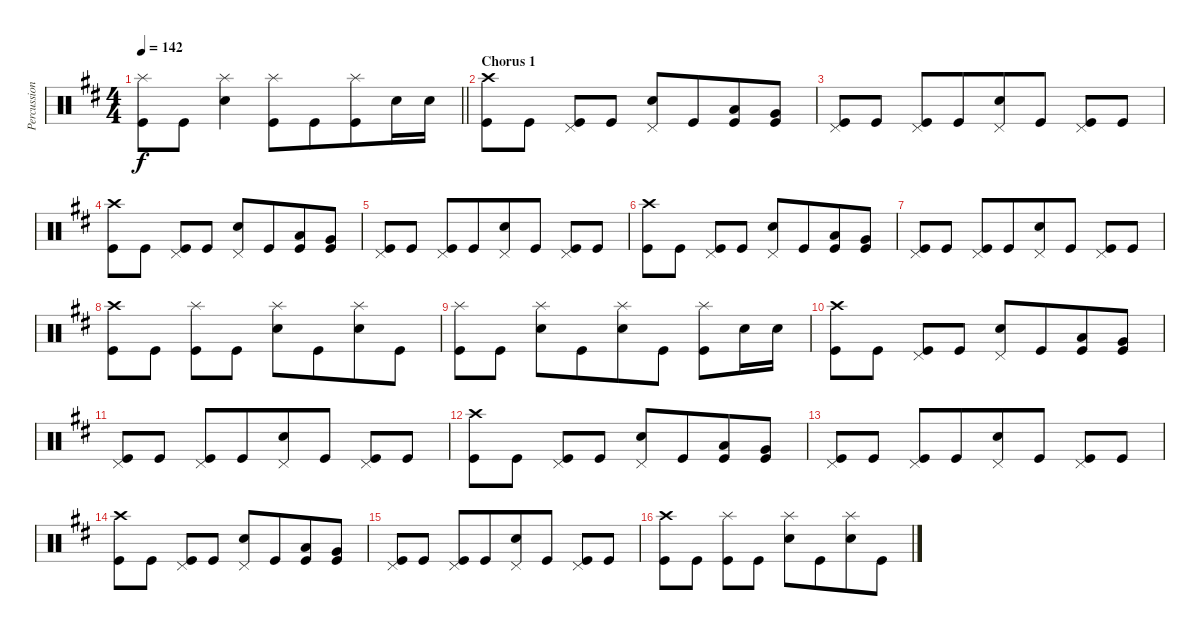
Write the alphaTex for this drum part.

\track ("Percussion" "Percussion") {instrument percussion}
\staff {score}
\articulation defaults
\ts (4 4)
\tempo 142
\clef neutral
\barLineRight lightlight
\ks d
("Kick (hit)" "Splash (hit)").8{dy f} "Kick (hit)".8 ("Snare (hit) 2" "Splash (hit)").4 ("Kick (hit)" "Splash (hit)").8 "Kick (hit)".8{beam merge} ("Kick (hit)" "Splash (hit)").8 "Snare (hit) 2".16 "Snare (hit) 2".16 |
\section ("" "Chorus 1")
("Kick (hit)" "Crash high (hit)").8{beam merge} "Kick (hit)".8 ("Kick (hit)" "Pedal Hi-Hat (hit)").8{beam merge} "Kick (hit)".8 ("Snare (hit) 2" "Pedal Hi-Hat (hit)").8{beam merge} "Kick (hit)".8{beam merge} ("Kick (hit)" "Low Tom (hit)").8 ("Kick (hit)" "Very Low Tom (hit)").8 |
("Kick (hit)" "Pedal Hi-Hat (hit)").8 "Kick (hit)".8 ("Kick (hit)" "Pedal Hi-Hat (hit)").8 "Kick (hit)".8{beam merge} ("Snare (hit) 2" "Pedal Hi-Hat (hit)").8{beam merge} "Kick (hit)".8 ("Kick (hit)" "Pedal Hi-Hat (hit)").8 "Kick (hit)".8 |
("Kick (hit)" "Crash high (hit)").8{beam merge} "Kick (hit)".8 ("Kick (hit)" "Pedal Hi-Hat (hit)").8{beam merge} "Kick (hit)".8 ("Snare (hit) 2" "Pedal Hi-Hat (hit)").8{beam merge} "Kick (hit)".8{beam merge} ("Kick (hit)" "Low Tom (hit)").8 ("Kick (hit)" "Very Low Tom (hit)").8 |
("Kick (hit)" "Pedal Hi-Hat (hit)").8 "Kick (hit)".8 ("Kick (hit)" "Pedal Hi-Hat (hit)").8 "Kick (hit)".8{beam merge} ("Snare (hit) 2" "Pedal Hi-Hat (hit)").8{beam merge} "Kick (hit)".8 ("Kick (hit)" "Pedal Hi-Hat (hit)").8 "Kick (hit)".8 |
("Kick (hit)" "Crash high (hit)").8{beam merge} "Kick (hit)".8 ("Kick (hit)" "Pedal Hi-Hat (hit)").8{beam merge} "Kick (hit)".8 ("Snare (hit) 2" "Pedal Hi-Hat (hit)").8{beam merge} "Kick (hit)".8{beam merge} ("Kick (hit)" "Low Tom (hit)").8 ("Kick (hit)" "Very Low Tom (hit)").8 |
("Kick (hit)" "Pedal Hi-Hat (hit)").8 "Kick (hit)".8 ("Kick (hit)" "Pedal Hi-Hat (hit)").8 "Kick (hit)".8{beam merge} ("Snare (hit) 2" "Pedal Hi-Hat (hit)").8{beam merge} "Kick (hit)".8 ("Kick (hit)" "Pedal Hi-Hat (hit)").8 "Kick (hit)".8 |
("Kick (hit)" "Crash high (hit)").8{beam merge} "Kick (hit)".8 ("Kick (hit)" "Splash (hit)").8{beam merge} "Kick (hit)".8 ("Snare (hit) 2" "Splash (hit)").8{beam merge} "Kick (hit)".8{beam merge} ("Snare (hit) 2" "Splash (hit)").8 "Kick (hit)".8 |
("Kick (hit)" "Splash (hit)").8 "Kick (hit)".8 ("Snare (hit) 2" "Splash (hit)").8 "Kick (hit)".8{beam merge} ("Snare (hit) 2" "Splash (hit)").8{beam merge} "Kick (hit)".8 ("Kick (hit)" "Splash (hit)").8 "Snare (hit) 2".16 "Snare (hit) 2".16 |
("Kick (hit)" "Crash high (hit)").8{beam merge} "Kick (hit)".8 ("Kick (hit)" "Pedal Hi-Hat (hit)").8{beam merge} "Kick (hit)".8 ("Snare (hit) 2" "Pedal Hi-Hat (hit)").8{beam merge} "Kick (hit)".8{beam merge} ("Kick (hit)" "Low Tom (hit)").8 ("Kick (hit)" "Very Low Tom (hit)").8 |
("Kick (hit)" "Pedal Hi-Hat (hit)").8 "Kick (hit)".8 ("Kick (hit)" "Pedal Hi-Hat (hit)").8 "Kick (hit)".8{beam merge} ("Snare (hit) 2" "Pedal Hi-Hat (hit)").8{beam merge} "Kick (hit)".8 ("Kick (hit)" "Pedal Hi-Hat (hit)").8 "Kick (hit)".8 |
("Kick (hit)" "Crash high (hit)").8{beam merge} "Kick (hit)".8 ("Kick (hit)" "Pedal Hi-Hat (hit)").8{beam merge} "Kick (hit)".8 ("Snare (hit) 2" "Pedal Hi-Hat (hit)").8{beam merge} "Kick (hit)".8{beam merge} ("Kick (hit)" "Low Tom (hit)").8 ("Kick (hit)" "Very Low Tom (hit)").8 |
("Kick (hit)" "Pedal Hi-Hat (hit)").8 "Kick (hit)".8 ("Kick (hit)" "Pedal Hi-Hat (hit)").8 "Kick (hit)".8{beam merge} ("Snare (hit) 2" "Pedal Hi-Hat (hit)").8{beam merge} "Kick (hit)".8 ("Kick (hit)" "Pedal Hi-Hat (hit)").8 "Kick (hit)".8 |
("Kick (hit)" "Crash high (hit)").8{beam merge} "Kick (hit)".8 ("Kick (hit)" "Pedal Hi-Hat (hit)").8{beam merge} "Kick (hit)".8 ("Snare (hit) 2" "Pedal Hi-Hat (hit)").8{beam merge} "Kick (hit)".8{beam merge} ("Kick (hit)" "Low Tom (hit)").8 ("Kick (hit)" "Very Low Tom (hit)").8 |
("Kick (hit)" "Pedal Hi-Hat (hit)").8 "Kick (hit)".8 ("Kick (hit)" "Pedal Hi-Hat (hit)").8 "Kick (hit)".8{beam merge} ("Snare (hit) 2" "Pedal Hi-Hat (hit)").8{beam merge} "Kick (hit)".8 ("Kick (hit)" "Pedal Hi-Hat (hit)").8 "Kick (hit)".8 |
("Kick (hit)" "Crash high (hit)").8{beam merge} "Kick (hit)".8 ("Kick (hit)" "Splash (hit)").8{beam merge} "Kick (hit)".8 ("Snare (hit) 2" "Splash (hit)").8{beam merge} "Kick (hit)".8{beam merge} ("Snare (hit) 2" "Splash (hit)").8 "Kick (hit)".8
